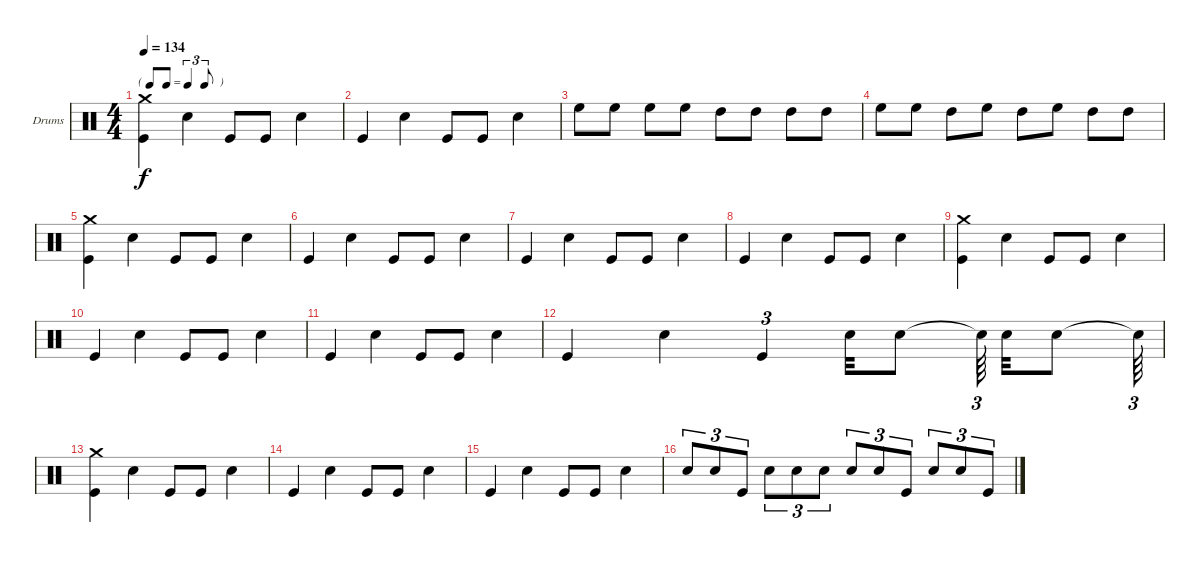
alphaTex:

\bracketExtendMode groupsimilarinstruments
\firstSystemTrackNameOrientation horizontal
\otherSystemsTrackNameOrientation horizontal
\track ("Drumkit" "Drums") {instrument percussion}
\staff {score}
\articulation defaults
\ts (4 4)
\tf triplet8th
\tempo 134
\clef neutral
\ks c
("Kick (hit)" "Crash medium (hit)").4{dy f} "Snare (hit) 2".4 "Kick (hit)".8 "Kick (hit)".8 "Snare (hit) 2".4 |
"Kick (hit)".4 "Snare (hit) 2".4 "Kick (hit)".8 "Kick (hit)".8 "Snare (hit) 2".4 |
"High Floor Tom (hit)".8 "High Floor Tom (hit)".8 "High Floor Tom (hit)".8 "High Floor Tom (hit)".8 "High Tom (hit)".8 "High Tom (hit)".8 "High Tom (hit)".8 "High Tom (hit)".8 |
"High Floor Tom (hit)".8 "High Floor Tom (hit)".8 "High Tom (hit)".8 "High Floor Tom (hit)".8 "High Tom (hit)".8 "High Floor Tom (hit)".8 "High Tom (hit)".8 "High Tom (hit)".8 |
("Kick (hit)" "Crash medium (hit)").4 "Snare (hit) 2".4 "Kick (hit)".8 "Kick (hit)".8 "Snare (hit) 2".4 |
"Kick (hit)".4 "Snare (hit) 2".4 "Kick (hit)".8 "Kick (hit)".8 "Snare (hit) 2".4 |
"Kick (hit)".4 "Snare (hit) 2".4 "Kick (hit)".8 "Kick (hit)".8 "Snare (hit) 2".4 |
"Kick (hit)".4 "Snare (hit) 2".4 "Kick (hit)".8 "Kick (hit)".8 "Snare (hit) 2".4 |
("Kick (hit)" "Crash medium (hit)").4 "Snare (hit) 2".4 "Kick (hit)".8 "Kick (hit)".8 "Snare (hit) 2".4 |
"Kick (hit)".4 "Snare (hit) 2".4 "Kick (hit)".8 "Kick (hit)".8 "Snare (hit) 2".4 |
"Kick (hit)".4 "Snare (hit) 2".4 "Kick (hit)".8 "Kick (hit)".8 "Snare (hit) 2".4 |
"Kick (hit)".4 "Snare (hit) 2".4 "Kick (hit)".4{tu (3 2)} "Snare (hit) 2".32 "Snare (hit) 2".8 "Snare (hit) 2"{t}.64{tu (3 2)} "Snare (hit) 2".32 "Snare (hit) 2".8 "Snare (hit) 2"{t}.64{tu (3 2)} |
("Kick (hit)" "Crash medium (hit)").4 "Snare (hit) 2".4 "Kick (hit)".8 "Kick (hit)".8 "Snare (hit) 2".4 |
"Kick (hit)".4 "Snare (hit) 2".4 "Kick (hit)".8 "Kick (hit)".8 "Snare (hit) 2".4 |
"Kick (hit)".4 "Snare (hit) 2".4 "Kick (hit)".8 "Kick (hit)".8 "Snare (hit) 2".4 |
"Snare (hit) 2".8{tu (3 2)} "Snare (hit) 2".8{tu (3 2)} "Kick (hit)".8{tu (3 2)} "Snare (hit) 2".8{tu (3 2)} "Snare (hit) 2".8{tu (3 2)} "Snare (hit) 2".8{tu (3 2)} "Snare (hit) 2".8{tu (3 2)} "Snare (hit) 2".8{tu (3 2)} "Kick (hit)".8{tu (3 2)} "Snare (hit) 2".8{tu (3 2)} "Snare (hit) 2".8{tu (3 2)} "Kick (hit)".8{tu (3 2)}
